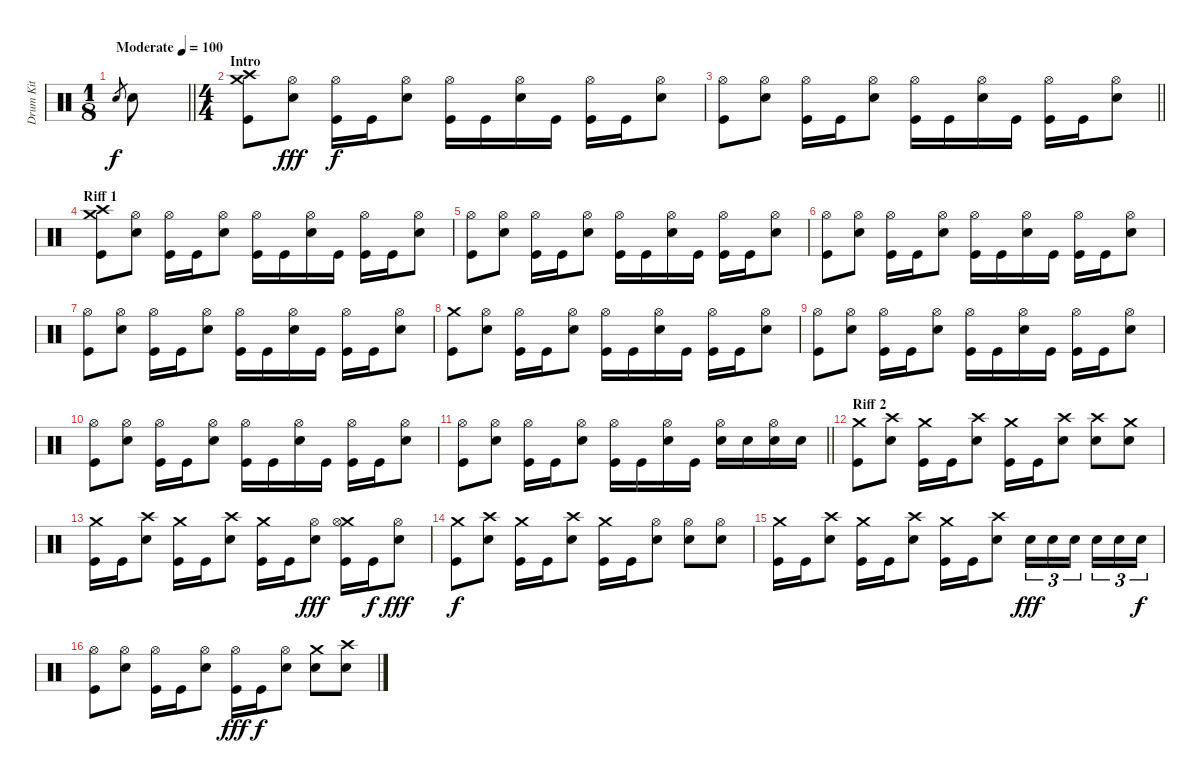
\track ("Drum Kit" "Drum Kit") {instrument percussion}
\staff {score}
\articulation defaults
\ts (1 8)
\tempo (100 "Moderate")
\clef neutral
\barLineRight lightlight
\ks c "Electric Snare (hit)".8{gr dy f} "Electric Snare (hit)".8
|
\ts (4 4)
\section ("" "Intro")
("Crash high (hit)" "Crash medium (hit)" "Kick (hit)").8 ("Hi-Hat (open)" "Electric Snare (hit)").8{dy fff} ("Hi-Hat (open)" "Kick (hit)").16{dy f} "Kick (hit)".16 ("Hi-Hat (open)" "Electric Snare (hit)").8 ("Hi-Hat (open)" "Kick (hit)").16 "Kick (hit)".16 ("Hi-Hat (open)" "Electric Snare (hit)").16 "Kick (hit)".16 ("Hi-Hat (open)" "Kick (hit)").16 "Kick (hit)".16 ("Hi-Hat (open)" "Electric Snare (hit)").8 |
\barLineRight lightlight
("Hi-Hat (open)" "Kick (hit)").8 ("Hi-Hat (open)" "Electric Snare (hit)").8 ("Hi-Hat (open)" "Kick (hit)").16 "Kick (hit)".16 ("Hi-Hat (open)" "Electric Snare (hit)").8 ("Hi-Hat (open)" "Kick (hit)").16 "Kick (hit)".16 ("Hi-Hat (open)" "Electric Snare (hit)").16 "Kick (hit)".16 ("Hi-Hat (open)" "Kick (hit)").16 "Kick (hit)".16 ("Hi-Hat (open)" "Electric Snare (hit)").8 |
\section ("" "Riff 1")
("Crash high (hit)" "Crash medium (hit)" "Kick (hit)").8 ("Hi-Hat (open)" "Electric Snare (hit)").8 ("Hi-Hat (open)" "Kick (hit)").16 "Kick (hit)".16 ("Hi-Hat (open)" "Electric Snare (hit)").8 ("Hi-Hat (open)" "Kick (hit)").16 "Kick (hit)".16 ("Hi-Hat (open)" "Electric Snare (hit)").16 "Kick (hit)".16 ("Hi-Hat (open)" "Kick (hit)").16 "Kick (hit)".16 ("Hi-Hat (open)" "Electric Snare (hit)").8 |
("Hi-Hat (open)" "Kick (hit)").8 ("Hi-Hat (open)" "Electric Snare (hit)").8 ("Hi-Hat (open)" "Kick (hit)").16 "Kick (hit)".16 ("Hi-Hat (open)" "Electric Snare (hit)").8 ("Hi-Hat (open)" "Kick (hit)").16 "Kick (hit)".16 ("Hi-Hat (open)" "Electric Snare (hit)").16 "Kick (hit)".16 ("Hi-Hat (open)" "Kick (hit)").16 "Kick (hit)".16 ("Hi-Hat (open)" "Electric Snare (hit)").8 |
("Hi-Hat (open)" "Kick (hit)").8 ("Hi-Hat (open)" "Electric Snare (hit)").8 ("Hi-Hat (open)" "Kick (hit)").16 "Kick (hit)".16 ("Hi-Hat (open)" "Electric Snare (hit)").8 ("Hi-Hat (open)" "Kick (hit)").16 "Kick (hit)".16 ("Hi-Hat (open)" "Electric Snare (hit)").16 "Kick (hit)".16 ("Hi-Hat (open)" "Kick (hit)").16 "Kick (hit)".16 ("Hi-Hat (open)" "Electric Snare (hit)").8 |
("Hi-Hat (open)" "Kick (hit)").8 ("Hi-Hat (open)" "Electric Snare (hit)").8 ("Hi-Hat (open)" "Kick (hit)").16 "Kick (hit)".16 ("Hi-Hat (open)" "Electric Snare (hit)").8 ("Hi-Hat (open)" "Kick (hit)").16 "Kick (hit)".16 ("Hi-Hat (open)" "Electric Snare (hit)").16 "Kick (hit)".16 ("Hi-Hat (open)" "Kick (hit)").16 "Kick (hit)".16 ("Hi-Hat (open)" "Electric Snare (hit)").8 |
("Crash medium (hit)" "Kick (hit)").8 ("Hi-Hat (open)" "Electric Snare (hit)").8 ("Hi-Hat (open)" "Kick (hit)").16 "Kick (hit)".16 ("Hi-Hat (open)" "Electric Snare (hit)").8 ("Hi-Hat (open)" "Kick (hit)").16 "Kick (hit)".16 ("Hi-Hat (open)" "Electric Snare (hit)").16 "Kick (hit)".16 ("Hi-Hat (open)" "Kick (hit)").16 "Kick (hit)".16 ("Hi-Hat (open)" "Electric Snare (hit)").8 |
("Hi-Hat (open)" "Kick (hit)").8 ("Hi-Hat (open)" "Electric Snare (hit)").8 ("Hi-Hat (open)" "Kick (hit)").16 "Kick (hit)".16 ("Hi-Hat (open)" "Electric Snare (hit)").8 ("Hi-Hat (open)" "Kick (hit)").16 "Kick (hit)".16 ("Hi-Hat (open)" "Electric Snare (hit)").16 "Kick (hit)".16 ("Hi-Hat (open)" "Kick (hit)").16 "Kick (hit)".16 ("Hi-Hat (open)" "Electric Snare (hit)").8 |
("Hi-Hat (open)" "Kick (hit)").8 ("Hi-Hat (open)" "Electric Snare (hit)").8 ("Hi-Hat (open)" "Kick (hit)").16 "Kick (hit)".16 ("Hi-Hat (open)" "Electric Snare (hit)").8 ("Hi-Hat (open)" "Kick (hit)").16 "Kick (hit)".16 ("Hi-Hat (open)" "Electric Snare (hit)").16 "Kick (hit)".16 ("Hi-Hat (open)" "Kick (hit)").16 "Kick (hit)".16 ("Hi-Hat (open)" "Electric Snare (hit)").8 |
\barLineRight lightlight
("Hi-Hat (open)" "Kick (hit)").8 ("Hi-Hat (open)" "Electric Snare (hit)").8 ("Hi-Hat (open)" "Kick (hit)").16 "Kick (hit)".16 ("Hi-Hat (open)" "Electric Snare (hit)").8 ("Hi-Hat (open)" "Kick (hit)").16 "Kick (hit)".16 ("Hi-Hat (open)" "Electric Snare (hit)").16 "Kick (hit)".16 ("Hi-Hat (open)" "Electric Snare (hit)").16 "Electric Snare (hit)".16 ("Hi-Hat (open)" "Electric Snare (hit)").16 "Electric Snare (hit)".16 |
\section ("" "Riff 2")
("Crash medium (hit)" "Kick (hit)").8 ("Crash high (hit)" "Electric Snare (hit)").8 ("Crash medium (hit)" "Kick (hit)").16 "Kick (hit)".16 ("Crash high (hit)" "Electric Snare (hit)").8 ("Crash medium (hit)" "Kick (hit)").16 "Kick (hit)".16 ("Crash high (hit)" "Electric Snare (hit)").8 ("Crash high (hit)" "Electric Snare (hit)").8 ("Crash medium (hit)" "Electric Snare (hit)").8 |
("Crash medium (hit)" "Kick (hit)").16 "Kick (hit)".16 ("Crash high (hit)" "Electric Snare (hit)").8 ("Crash medium (hit)" "Kick (hit)").16 "Kick (hit)".16 ("Crash high (hit)" "Electric Snare (hit)").8 ("Crash medium (hit)" "Kick (hit)").16 "Kick (hit)".16 ("Hi-Hat (open)" "Electric Snare (hit)").8{dy fff} ("Crash medium (hit)" "Hi-Hat (open)" "Kick (hit)").16 "Kick (hit)".16{dy f} ("Hi-Hat (open)" "Electric Snare (hit)").8{dy fff} |
("Crash medium (hit)" "Kick (hit)").8{dy f} ("Crash high (hit)" "Electric Snare (hit)").8 ("Crash medium (hit)" "Kick (hit)").16 "Kick (hit)".16 ("Crash high (hit)" "Electric Snare (hit)").8 ("Crash medium (hit)" "Kick (hit)").16 "Kick (hit)".16 ("Hi-Hat (open)" "Electric Snare (hit)").8 ("Hi-Hat (open)" "Electric Snare (hit)").8 ("Hi-Hat (open)" "Electric Snare (hit)").8 |
("Crash medium (hit)" "Kick (hit)").16 "Kick (hit)".16 ("Crash high (hit)" "Electric Snare (hit)").8 ("Crash medium (hit)" "Kick (hit)").16 "Kick (hit)".16 ("Crash high (hit)" "Electric Snare (hit)").8 ("Crash medium (hit)" "Kick (hit)").16 "Kick (hit)".16 ("Crash high (hit)" "Electric Snare (hit)").8 "Electric Snare (hit)".16{tu (3 2) dy fff} "Electric Snare (hit)".16{tu (3 2)} "Electric Snare (hit)".16{tu (3 2) beam splitsecondary} "Electric Snare (hit)".16{tu (3 2)} "Electric Snare (hit)".16{tu (3 2)} "Electric Snare (hit)".16{tu (3 2) dy f} |
("Hi-Hat (open)" "Kick (hit)").8 ("Hi-Hat (open)" "Electric Snare (hit)").8 ("Hi-Hat (open)" "Kick (hit)").16 "Kick (hit)".16 ("Hi-Hat (open)" "Electric Snare (hit)").8 ("Hi-Hat (open)" "Kick (hit)").16{dy fff} "Kick (hit)".16{dy f} ("Hi-Hat (open)" "Electric Snare (hit)").8 ("Crash medium (hit)" "Electric Snare (hit)").8 ("Crash high (hit)" "Electric Snare (hit)").8
